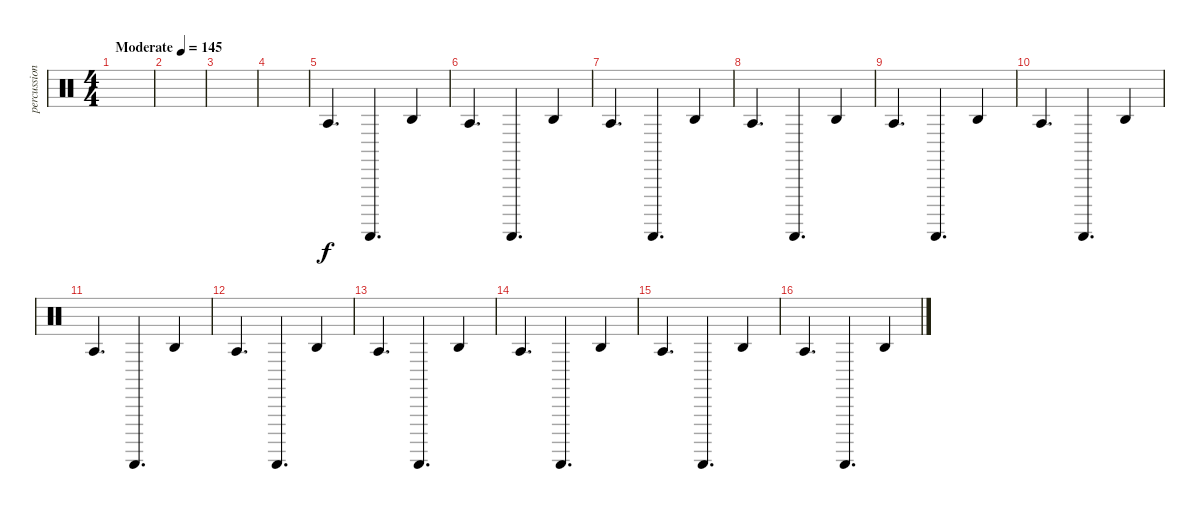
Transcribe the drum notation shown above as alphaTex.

\track ("percussion" "percussion") {instrument percussion}
\staff {score}
\articulation defaults
\ts (4 4)
\tempo (145 "Moderate")
\clef neutral
\ks c
|
|
|
|
"Agogo tow (hit)".4{d} "Guiro (scrap-return)".4{d} "Agogo high (hit)".4 |
"Agogo tow (hit)".4{d} "Guiro (scrap-return)".4{d} "Agogo high (hit)".4 |
"Agogo tow (hit)".4{d} "Guiro (scrap-return)".4{d} "Agogo high (hit)".4 |
"Agogo tow (hit)".4{d volume 9} "Guiro (scrap-return)".4{d} "Agogo high (hit)".4 |
"Agogo tow (hit)".4{d} "Guiro (scrap-return)".4{d} "Agogo high (hit)".4 |
"Agogo tow (hit)".4{d} "Guiro (scrap-return)".4{d} "Agogo high (hit)".4 |
"Agogo tow (hit)".4{d} "Guiro (scrap-return)".4{d} "Agogo high (hit)".4 |
"Agogo tow (hit)".4{d} "Guiro (scrap-return)".4{d} "Agogo high (hit)".4 |
"Agogo tow (hit)".4{d} "Guiro (scrap-return)".4{d} "Agogo high (hit)".4 |
"Agogo tow (hit)".4{d} "Guiro (scrap-return)".4{d} "Agogo high (hit)".4 |
"Agogo tow (hit)".4{d} "Guiro (scrap-return)".4{d} "Agogo high (hit)".4 |
"Agogo tow (hit)".4{d} "Guiro (scrap-return)".4{d} "Agogo high (hit)".4
